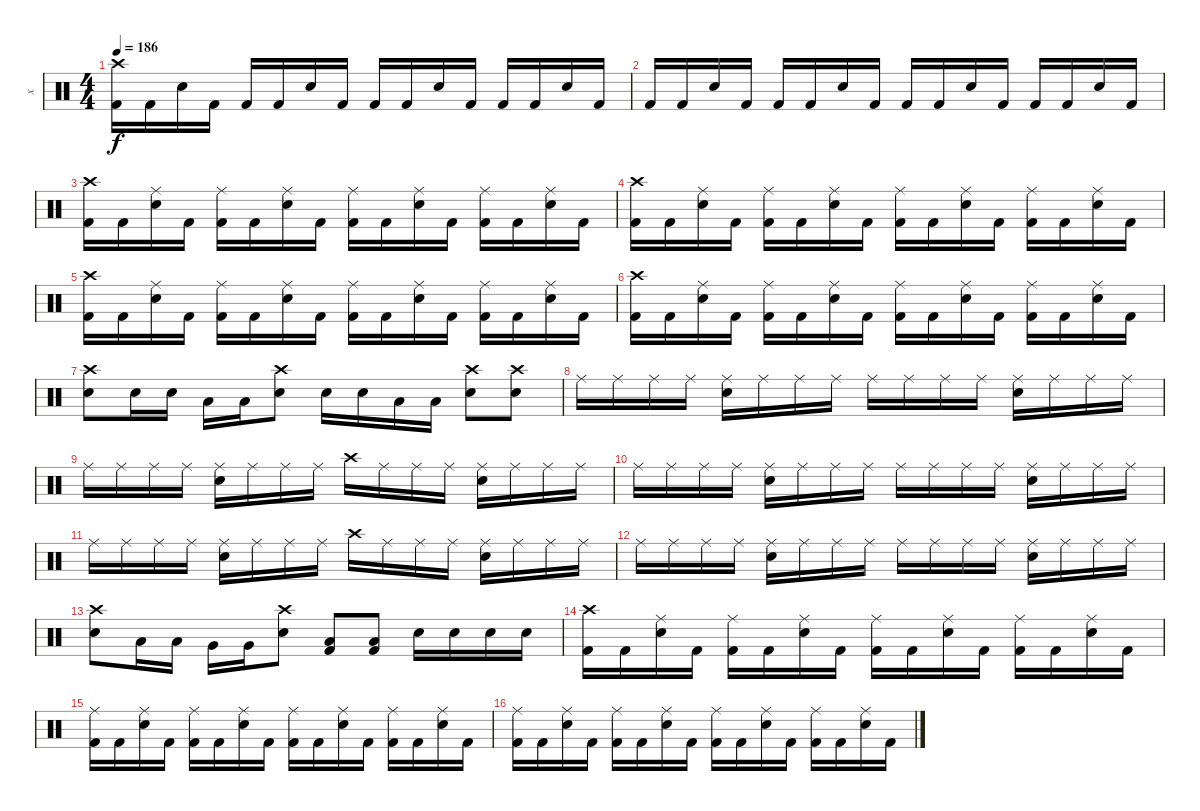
\track ("x" "x") {instrument percussion}
\staff {score}
\articulation defaults
\ts (4 4)
\tempo 186
\clef neutral
\ks c
("Crash high (hit)" "Kick (hit) 2").16{dy f} "Kick (hit) 2".16 "Snare (hit) 2".16 "Kick (hit) 2".16 "Kick (hit) 2".16 "Kick (hit) 2".16 "Snare (hit) 2".16 "Kick (hit) 2".16 "Kick (hit) 2".16 "Kick (hit) 2".16 "Snare (hit) 2".16 "Kick (hit) 2".16 "Kick (hit) 2".16 "Kick (hit) 2".16 "Snare (hit) 2".16 "Kick (hit) 2".16 |
"Kick (hit) 2".16 "Kick (hit) 2".16 "Snare (hit) 2".16 "Kick (hit) 2".16 "Kick (hit) 2".16 "Kick (hit) 2".16 "Snare (hit) 2".16 "Kick (hit) 2".16 "Kick (hit) 2".16 "Kick (hit) 2".16 "Snare (hit) 2".16 "Kick (hit) 2".16 "Kick (hit) 2".16 "Kick (hit) 2".16 "Snare (hit) 2".16 "Kick (hit) 2".16 |
("Crash high (hit)" "Kick (hit) 2").16 "Kick (hit) 2".16 ("Ride (middle)" "Snare (hit) 2").16 "Kick (hit) 2".16 ("Ride (middle)" "Kick (hit) 2").16 "Kick (hit) 2".16 ("Ride (middle)" "Snare (hit) 2").16 "Kick (hit) 2".16 ("Ride (middle)" "Kick (hit) 2").16 "Kick (hit) 2".16 ("Ride (middle)" "Snare (hit) 2").16 "Kick (hit) 2".16 ("Ride (middle)" "Kick (hit) 2").16 "Kick (hit) 2".16 ("Ride (middle)" "Snare (hit) 2").16 "Kick (hit) 2".16 |
("Crash high (hit)" "Kick (hit) 2").16 "Kick (hit) 2".16 ("Ride (middle)" "Snare (hit) 2").16 "Kick (hit) 2".16 ("Ride (middle)" "Kick (hit) 2").16 "Kick (hit) 2".16 ("Ride (middle)" "Snare (hit) 2").16 "Kick (hit) 2".16 ("Ride (middle)" "Kick (hit) 2").16 "Kick (hit) 2".16 ("Ride (middle)" "Snare (hit) 2").16 "Kick (hit) 2".16 ("Ride (middle)" "Kick (hit) 2").16 "Kick (hit) 2".16 ("Ride (middle)" "Snare (hit) 2").16 "Kick (hit) 2".16 |
("Crash high (hit)" "Kick (hit) 2").16 "Kick (hit) 2".16 ("Ride (middle)" "Snare (hit) 2").16 "Kick (hit) 2".16 ("Ride (middle)" "Kick (hit) 2").16 "Kick (hit) 2".16 ("Ride (middle)" "Snare (hit) 2").16 "Kick (hit) 2".16 ("Ride (middle)" "Kick (hit) 2").16 "Kick (hit) 2".16 ("Ride (middle)" "Snare (hit) 2").16 "Kick (hit) 2".16 ("Ride (middle)" "Kick (hit) 2").16 "Kick (hit) 2".16 ("Ride (middle)" "Snare (hit) 2").16 "Kick (hit) 2".16 |
("Crash high (hit)" "Kick (hit) 2").16 "Kick (hit) 2".16 ("Ride (middle)" "Snare (hit) 2").16 "Kick (hit) 2".16 ("Ride (middle)" "Kick (hit) 2").16 "Kick (hit) 2".16 ("Ride (middle)" "Snare (hit) 2").16 "Kick (hit) 2".16 ("Ride (middle)" "Kick (hit) 2").16 "Kick (hit) 2".16 ("Ride (middle)" "Snare (hit) 2").16 "Kick (hit) 2".16 ("Ride (middle)" "Kick (hit) 2").16 "Kick (hit) 2".16 ("Ride (middle)" "Snare (hit) 2").16 "Kick (hit) 2".16 |
("Crash high (hit)" "Snare (hit) 2").8 "Snare (hit) 2".16 "Snare (hit) 2".16 "Low Tom (hit)".16 "Low Tom (hit)".16 ("Crash high (hit)" "Snare (hit) 2").8 "Snare (hit) 2".16 "Snare (hit) 2".16 "Low Tom (hit)".16 "Low Tom (hit)".16 ("Crash high (hit)" "Snare (hit) 2").8 ("Crash high (hit)" "Snare (hit) 2").8 |
"Ride (middle)".16 "Ride (middle)".16 "Ride (middle)".16 "Ride (middle)".16 ("Ride (middle)" "Snare (hit) 2").16 "Ride (middle)".16 "Ride (middle)".16 "Ride (middle)".16 "Ride (middle)".16 "Ride (middle)".16 "Ride (middle)".16 "Ride (middle)".16 ("Ride (middle)" "Snare (hit) 2").16 "Ride (middle)".16 "Ride (middle)".16 "Ride (middle)".16 |
"Ride (middle)".16 "Ride (middle)".16 "Ride (middle)".16 "Ride (middle)".16 ("Ride (middle)" "Snare (hit) 2").16 "Ride (middle)".16 "Ride (middle)".16 "Ride (middle)".16 "Crash high (hit)".16 "Ride (middle)".16 "Ride (middle)".16 "Ride (middle)".16 ("Ride (middle)" "Snare (hit) 2").16 "Ride (middle)".16 "Ride (middle)".16 "Ride (middle)".16 |
"Ride (middle)".16 "Ride (middle)".16 "Ride (middle)".16 "Ride (middle)".16 ("Ride (middle)" "Snare (hit) 2").16 "Ride (middle)".16 "Ride (middle)".16 "Ride (middle)".16 "Ride (middle)".16 "Ride (middle)".16 "Ride (middle)".16 "Ride (middle)".16 ("Ride (middle)" "Snare (hit) 2").16 "Ride (middle)".16 "Ride (middle)".16 "Ride (middle)".16 |
"Ride (middle)".16 "Ride (middle)".16 "Ride (middle)".16 "Ride (middle)".16 ("Ride (middle)" "Snare (hit) 2").16 "Ride (middle)".16 "Ride (middle)".16 "Ride (middle)".16 "Crash high (hit)".16 "Ride (middle)".16 "Ride (middle)".16 "Ride (middle)".16 ("Ride (middle)" "Snare (hit) 2").16 "Ride (middle)".16 "Ride (middle)".16 "Ride (middle)".16 |
"Ride (middle)".16 "Ride (middle)".16 "Ride (middle)".16 "Ride (middle)".16 ("Ride (middle)" "Snare (hit) 2").16 "Ride (middle)".16 "Ride (middle)".16 "Ride (middle)".16 "Ride (middle)".16 "Ride (middle)".16 "Ride (middle)".16 "Ride (middle)".16 ("Ride (middle)" "Snare (hit) 2").16 "Ride (middle)".16 "Ride (middle)".16 "Ride (middle)".16 |
("Crash high (hit)" "Snare (hit) 2").8 "Low Tom (hit)".16 "Low Tom (hit)".16 "Very Low Tom (hit)".16 "Very Low Tom (hit)".16 ("Crash high (hit)" "Snare (hit) 2").8 ("Low Tom (hit)" "Kick (hit) 2").8 ("Low Tom (hit)" "Kick (hit) 2").8 "Snare (hit) 2".16 "Snare (hit) 2".16 "Snare (hit) 2".16 "Snare (hit) 2".16 |
("Crash high (hit)" "Kick (hit) 2").16 "Kick (hit) 2".16 ("Ride (middle)" "Snare (hit) 2").16 "Kick (hit) 2".16 ("Ride (middle)" "Kick (hit) 2").16 "Kick (hit) 2".16 ("Ride (middle)" "Snare (hit) 2").16 "Kick (hit) 2".16 ("Ride (middle)" "Kick (hit) 2").16 "Kick (hit) 2".16 ("Ride (middle)" "Snare (hit) 2").16 "Kick (hit) 2".16 ("Ride (middle)" "Kick (hit) 2").16 "Kick (hit) 2".16 ("Ride (middle)" "Snare (hit) 2").16 "Kick (hit) 2".16 |
("Ride (middle)" "Kick (hit) 2").16 "Kick (hit) 2".16 ("Ride (middle)" "Snare (hit) 2").16 "Kick (hit) 2".16 ("Ride (middle)" "Kick (hit) 2").16 "Kick (hit) 2".16 ("Ride (middle)" "Snare (hit) 2").16 "Kick (hit) 2".16 ("Ride (middle)" "Kick (hit) 2").16 "Kick (hit) 2".16 ("Ride (middle)" "Snare (hit) 2").16 "Kick (hit) 2".16 ("Ride (middle)" "Kick (hit) 2").16 "Kick (hit) 2".16 ("Ride (middle)" "Snare (hit) 2").16 "Kick (hit) 2".16 |
("Ride (middle)" "Kick (hit) 2").16 "Kick (hit) 2".16 ("Ride (middle)" "Snare (hit) 2").16 "Kick (hit) 2".16 ("Ride (middle)" "Kick (hit) 2").16 "Kick (hit) 2".16 ("Ride (middle)" "Snare (hit) 2").16 "Kick (hit) 2".16 ("Ride (middle)" "Kick (hit) 2").16 "Kick (hit) 2".16 ("Ride (middle)" "Snare (hit) 2").16 "Kick (hit) 2".16 ("Ride (middle)" "Kick (hit) 2").16 "Kick (hit) 2".16 ("Ride (middle)" "Snare (hit) 2").16 "Kick (hit) 2".16
